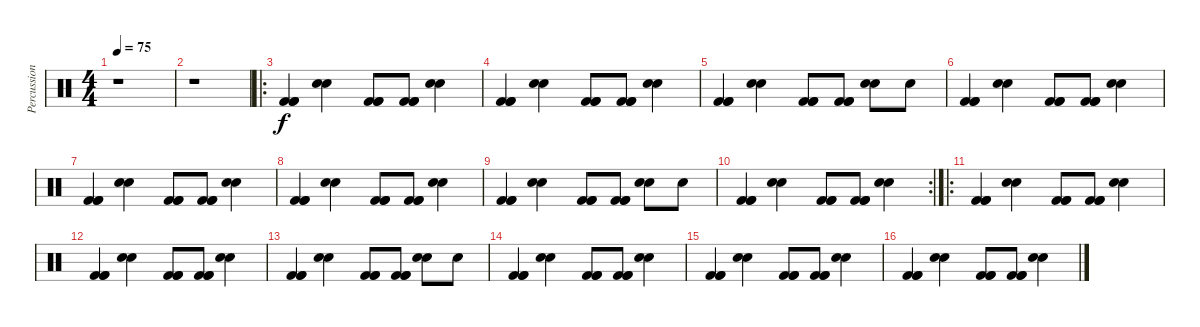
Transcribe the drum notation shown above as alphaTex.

\track ("Percussions" "Percussion") {instrument percussion}
\staff {score}
\articulation defaults
\ts (4 4)
\tempo 75
\clef neutral
\ks c
r.1{dy f} |
r.1 |
\ro
("Kick (hit) 2" "Kick (hit) 2" "Kick (hit) 2").4 ("Snare (hit) 2" "Snare (hit) 2").4 ("Kick (hit) 2" "Kick (hit) 2" "Kick (hit) 2").8 ("Kick (hit) 2" "Kick (hit) 2" "Kick (hit) 2").8 ("Snare (hit) 2" "Snare (hit) 2").4 |
("Kick (hit) 2" "Kick (hit) 2" "Kick (hit) 2").4 ("Snare (hit) 2" "Snare (hit) 2").4 ("Kick (hit) 2" "Kick (hit) 2" "Kick (hit) 2").8 ("Kick (hit) 2" "Kick (hit) 2" "Kick (hit) 2").8 ("Snare (hit) 2" "Snare (hit) 2").4 |
("Kick (hit) 2" "Kick (hit) 2" "Kick (hit) 2").4 ("Snare (hit) 2" "Snare (hit) 2").4 ("Kick (hit) 2" "Kick (hit) 2" "Kick (hit) 2").8 ("Kick (hit) 2" "Kick (hit) 2" "Kick (hit) 2").8 ("Snare (hit) 2" "Snare (hit) 2").8 "Snare (hit) 2".8 |
("Kick (hit) 2" "Kick (hit) 2" "Kick (hit) 2").4 ("Snare (hit) 2" "Snare (hit) 2").4 ("Kick (hit) 2" "Kick (hit) 2" "Kick (hit) 2").8 ("Kick (hit) 2" "Kick (hit) 2" "Kick (hit) 2").8 ("Snare (hit) 2" "Snare (hit) 2").4 |
("Kick (hit) 2" "Kick (hit) 2" "Kick (hit) 2").4 ("Snare (hit) 2" "Snare (hit) 2").4 ("Kick (hit) 2" "Kick (hit) 2" "Kick (hit) 2").8 ("Kick (hit) 2" "Kick (hit) 2" "Kick (hit) 2").8 ("Snare (hit) 2" "Snare (hit) 2").4 |
("Kick (hit) 2" "Kick (hit) 2" "Kick (hit) 2").4 ("Snare (hit) 2" "Snare (hit) 2").4 ("Kick (hit) 2" "Kick (hit) 2" "Kick (hit) 2").8 ("Kick (hit) 2" "Kick (hit) 2" "Kick (hit) 2").8 ("Snare (hit) 2" "Snare (hit) 2").4 |
("Kick (hit) 2" "Kick (hit) 2" "Kick (hit) 2").4 ("Snare (hit) 2" "Snare (hit) 2").4 ("Kick (hit) 2" "Kick (hit) 2" "Kick (hit) 2").8 ("Kick (hit) 2" "Kick (hit) 2" "Kick (hit) 2").8 ("Snare (hit) 2" "Snare (hit) 2").8 "Snare (hit) 2".8 |
\rc 2
("Kick (hit) 2" "Kick (hit) 2" "Kick (hit) 2").4 ("Snare (hit) 2" "Snare (hit) 2").4 ("Kick (hit) 2" "Kick (hit) 2" "Kick (hit) 2").8 ("Kick (hit) 2" "Kick (hit) 2" "Kick (hit) 2").8 ("Snare (hit) 2" "Snare (hit) 2").4 |
\ro
("Kick (hit) 2" "Kick (hit) 2" "Kick (hit) 2").4 ("Snare (hit) 2" "Snare (hit) 2").4 ("Kick (hit) 2" "Kick (hit) 2" "Kick (hit) 2").8 ("Kick (hit) 2" "Kick (hit) 2" "Kick (hit) 2").8 ("Snare (hit) 2" "Snare (hit) 2").4 |
("Kick (hit) 2" "Kick (hit) 2" "Kick (hit) 2").4 ("Snare (hit) 2" "Snare (hit) 2").4 ("Kick (hit) 2" "Kick (hit) 2" "Kick (hit) 2").8 ("Kick (hit) 2" "Kick (hit) 2" "Kick (hit) 2").8 ("Snare (hit) 2" "Snare (hit) 2").4 |
("Kick (hit) 2" "Kick (hit) 2" "Kick (hit) 2").4 ("Snare (hit) 2" "Snare (hit) 2").4 ("Kick (hit) 2" "Kick (hit) 2" "Kick (hit) 2").8 ("Kick (hit) 2" "Kick (hit) 2" "Kick (hit) 2").8 ("Snare (hit) 2" "Snare (hit) 2").8 "Snare (hit) 2".8 |
("Kick (hit) 2" "Kick (hit) 2" "Kick (hit) 2").4 ("Snare (hit) 2" "Snare (hit) 2").4 ("Kick (hit) 2" "Kick (hit) 2" "Kick (hit) 2").8 ("Kick (hit) 2" "Kick (hit) 2" "Kick (hit) 2").8 ("Snare (hit) 2" "Snare (hit) 2").4 |
("Kick (hit) 2" "Kick (hit) 2" "Kick (hit) 2").4 ("Snare (hit) 2" "Snare (hit) 2").4 ("Kick (hit) 2" "Kick (hit) 2" "Kick (hit) 2").8 ("Kick (hit) 2" "Kick (hit) 2" "Kick (hit) 2").8 ("Snare (hit) 2" "Snare (hit) 2").4 |
("Kick (hit) 2" "Kick (hit) 2" "Kick (hit) 2").4 ("Snare (hit) 2" "Snare (hit) 2").4 ("Kick (hit) 2" "Kick (hit) 2" "Kick (hit) 2").8 ("Kick (hit) 2" "Kick (hit) 2" "Kick (hit) 2").8 ("Snare (hit) 2" "Snare (hit) 2").4
